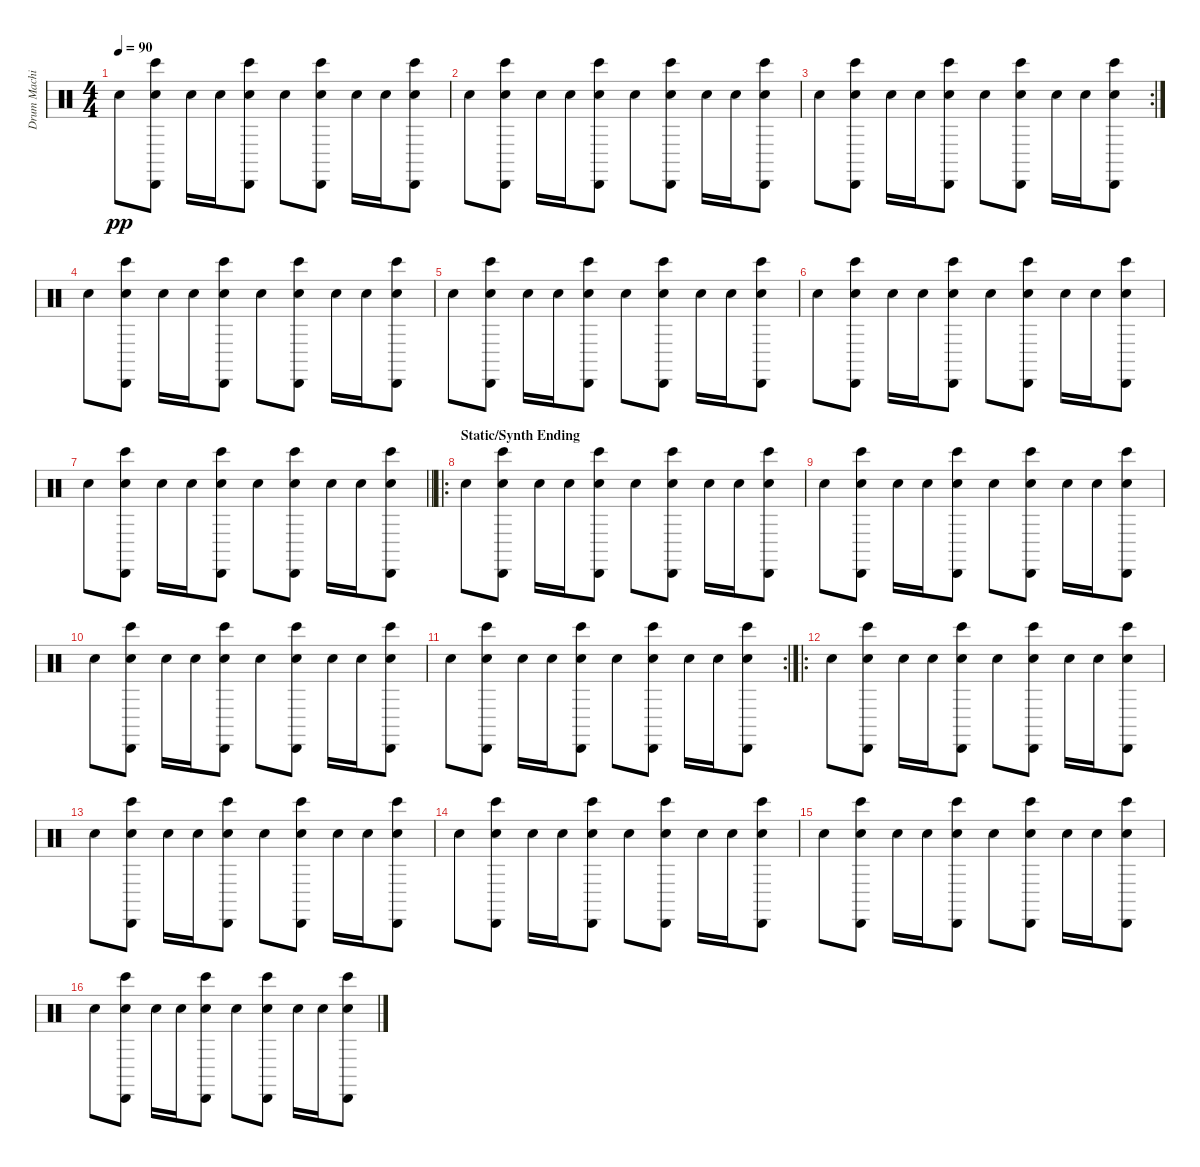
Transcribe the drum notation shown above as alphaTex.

\track ("Drum Machine" "Drum Machi") {instrument percussion}
\staff {score}
\articulation defaults
\ts (4 4)
\tempo 90
\clef neutral
\ks c "Hand Clap (hit)".8{dy pp}
("Hand Clap (hit)" "Cabasa (hit)" "Bongo High (hit)").8 "Hand Clap (hit)".16 "Hand Clap (hit)".16 ("Hand Clap (hit)" "Cabasa (hit)" "Bongo High (hit)").8 "Hand Clap (hit)".8 ("Hand Clap (hit)" "Cabasa (hit)" "Bongo High (hit)").8 "Hand Clap (hit)".16 "Hand Clap (hit)".16 ("Hand Clap (hit)" "Cabasa (hit)" "Bongo High (hit)").8 |
"Hand Clap (hit)".8 ("Hand Clap (hit)" "Cabasa (hit)" "Bongo High (hit)").8 "Hand Clap (hit)".16 "Hand Clap (hit)".16 ("Hand Clap (hit)" "Cabasa (hit)" "Bongo High (hit)").8 "Hand Clap (hit)".8 ("Hand Clap (hit)" "Cabasa (hit)" "Bongo High (hit)").8 "Hand Clap (hit)".16 "Hand Clap (hit)".16 ("Hand Clap (hit)" "Cabasa (hit)" "Bongo High (hit)").8 |
\rc 2 "Hand Clap (hit)".8
("Hand Clap (hit)" "Cabasa (hit)" "Bongo High (hit)").8 "Hand Clap (hit)".16 "Hand Clap (hit)".16 ("Hand Clap (hit)" "Cabasa (hit)" "Bongo High (hit)").8 "Hand Clap (hit)".8 ("Hand Clap (hit)" "Cabasa (hit)" "Bongo High (hit)").8 "Hand Clap (hit)".16 "Hand Clap (hit)".16 ("Hand Clap (hit)" "Cabasa (hit)" "Bongo High (hit)").8 |
"Hand Clap (hit)".8 ("Hand Clap (hit)" "Cabasa (hit)" "Bongo High (hit)").8 "Hand Clap (hit)".16 "Hand Clap (hit)".16 ("Hand Clap (hit)" "Cabasa (hit)" "Bongo High (hit)").8 "Hand Clap (hit)".8 ("Hand Clap (hit)" "Cabasa (hit)" "Bongo High (hit)").8 "Hand Clap (hit)".16 "Hand Clap (hit)".16 ("Hand Clap (hit)" "Cabasa (hit)" "Bongo High (hit)").8 |
"Hand Clap (hit)".8 ("Hand Clap (hit)" "Cabasa (hit)" "Bongo High (hit)").8 "Hand Clap (hit)".16 "Hand Clap (hit)".16 ("Hand Clap (hit)" "Cabasa (hit)" "Bongo High (hit)").8 "Hand Clap (hit)".8 ("Hand Clap (hit)" "Cabasa (hit)" "Bongo High (hit)").8 "Hand Clap (hit)".16 "Hand Clap (hit)".16 ("Hand Clap (hit)" "Cabasa (hit)" "Bongo High (hit)").8 |
"Hand Clap (hit)".8 ("Hand Clap (hit)" "Cabasa (hit)" "Bongo High (hit)").8 "Hand Clap (hit)".16 "Hand Clap (hit)".16 ("Hand Clap (hit)" "Cabasa (hit)" "Bongo High (hit)").8 "Hand Clap (hit)".8 ("Hand Clap (hit)" "Cabasa (hit)" "Bongo High (hit)").8 "Hand Clap (hit)".16 "Hand Clap (hit)".16 ("Hand Clap (hit)" "Cabasa (hit)" "Bongo High (hit)").8 |
\barLineRight lightlight "Hand Clap (hit)".8
("Hand Clap (hit)" "Cabasa (hit)" "Bongo High (hit)").8 "Hand Clap (hit)".16 "Hand Clap (hit)".16 ("Hand Clap (hit)" "Cabasa (hit)" "Bongo High (hit)").8 "Hand Clap (hit)".8 ("Hand Clap (hit)" "Cabasa (hit)" "Bongo High (hit)").8 "Hand Clap (hit)".16 "Hand Clap (hit)".16 ("Hand Clap (hit)" "Cabasa (hit)" "Bongo High (hit)").8 |
\ro
\section ("" "Static/Synth Ending")
"Hand Clap (hit)".8 ("Hand Clap (hit)" "Cabasa (hit)" "Bongo High (hit)").8 "Hand Clap (hit)".16 "Hand Clap (hit)".16 ("Hand Clap (hit)" "Cabasa (hit)" "Bongo High (hit)").8 "Hand Clap (hit)".8 ("Hand Clap (hit)" "Cabasa (hit)" "Bongo High (hit)").8 "Hand Clap (hit)".16 "Hand Clap (hit)".16 ("Hand Clap (hit)" "Cabasa (hit)" "Bongo High (hit)").8 |
"Hand Clap (hit)".8 ("Hand Clap (hit)" "Cabasa (hit)" "Bongo High (hit)").8 "Hand Clap (hit)".16 "Hand Clap (hit)".16 ("Hand Clap (hit)" "Cabasa (hit)" "Bongo High (hit)").8 "Hand Clap (hit)".8 ("Hand Clap (hit)" "Cabasa (hit)" "Bongo High (hit)").8 "Hand Clap (hit)".16 "Hand Clap (hit)".16 ("Hand Clap (hit)" "Cabasa (hit)" "Bongo High (hit)").8 |
"Hand Clap (hit)".8 ("Hand Clap (hit)" "Cabasa (hit)" "Bongo High (hit)").8 "Hand Clap (hit)".16 "Hand Clap (hit)".16 ("Hand Clap (hit)" "Cabasa (hit)" "Bongo High (hit)").8 "Hand Clap (hit)".8 ("Hand Clap (hit)" "Cabasa (hit)" "Bongo High (hit)").8 "Hand Clap (hit)".16 "Hand Clap (hit)".16 ("Hand Clap (hit)" "Cabasa (hit)" "Bongo High (hit)").8 |
\rc 2 "Hand Clap (hit)".8
("Hand Clap (hit)" "Cabasa (hit)" "Bongo High (hit)").8 "Hand Clap (hit)".16 "Hand Clap (hit)".16 ("Hand Clap (hit)" "Cabasa (hit)" "Bongo High (hit)").8 "Hand Clap (hit)".8 ("Hand Clap (hit)" "Cabasa (hit)" "Bongo High (hit)").8 "Hand Clap (hit)".16 "Hand Clap (hit)".16 ("Hand Clap (hit)" "Cabasa (hit)" "Bongo High (hit)").8 |
\ro "Hand Clap (hit)".8
("Hand Clap (hit)" "Cabasa (hit)" "Bongo High (hit)").8 "Hand Clap (hit)".16 "Hand Clap (hit)".16 ("Hand Clap (hit)" "Cabasa (hit)" "Bongo High (hit)").8 "Hand Clap (hit)".8 ("Hand Clap (hit)" "Cabasa (hit)" "Bongo High (hit)").8 "Hand Clap (hit)".16 "Hand Clap (hit)".16 ("Hand Clap (hit)" "Cabasa (hit)" "Bongo High (hit)").8 |
"Hand Clap (hit)".8 ("Hand Clap (hit)" "Cabasa (hit)" "Bongo High (hit)").8 "Hand Clap (hit)".16 "Hand Clap (hit)".16 ("Hand Clap (hit)" "Cabasa (hit)" "Bongo High (hit)").8 "Hand Clap (hit)".8 ("Hand Clap (hit)" "Cabasa (hit)" "Bongo High (hit)").8 "Hand Clap (hit)".16 "Hand Clap (hit)".16 ("Hand Clap (hit)" "Cabasa (hit)" "Bongo High (hit)").8 |
"Hand Clap (hit)".8 ("Hand Clap (hit)" "Cabasa (hit)" "Bongo High (hit)").8 "Hand Clap (hit)".16 "Hand Clap (hit)".16 ("Hand Clap (hit)" "Cabasa (hit)" "Bongo High (hit)").8 "Hand Clap (hit)".8 ("Hand Clap (hit)" "Cabasa (hit)" "Bongo High (hit)").8 "Hand Clap (hit)".16 "Hand Clap (hit)".16 ("Hand Clap (hit)" "Cabasa (hit)" "Bongo High (hit)").8 |
"Hand Clap (hit)".8 ("Hand Clap (hit)" "Cabasa (hit)" "Bongo High (hit)").8 "Hand Clap (hit)".16 "Hand Clap (hit)".16 ("Hand Clap (hit)" "Cabasa (hit)" "Bongo High (hit)").8 "Hand Clap (hit)".8 ("Hand Clap (hit)" "Cabasa (hit)" "Bongo High (hit)").8 "Hand Clap (hit)".16 "Hand Clap (hit)".16 ("Hand Clap (hit)" "Cabasa (hit)" "Bongo High (hit)").8 |
"Hand Clap (hit)".8 ("Hand Clap (hit)" "Cabasa (hit)" "Bongo High (hit)").8 "Hand Clap (hit)".16 "Hand Clap (hit)".16 ("Hand Clap (hit)" "Cabasa (hit)" "Bongo High (hit)").8 "Hand Clap (hit)".8 ("Hand Clap (hit)" "Cabasa (hit)" "Bongo High (hit)").8 "Hand Clap (hit)".16 "Hand Clap (hit)".16 ("Hand Clap (hit)" "Cabasa (hit)" "Bongo High (hit)").8
